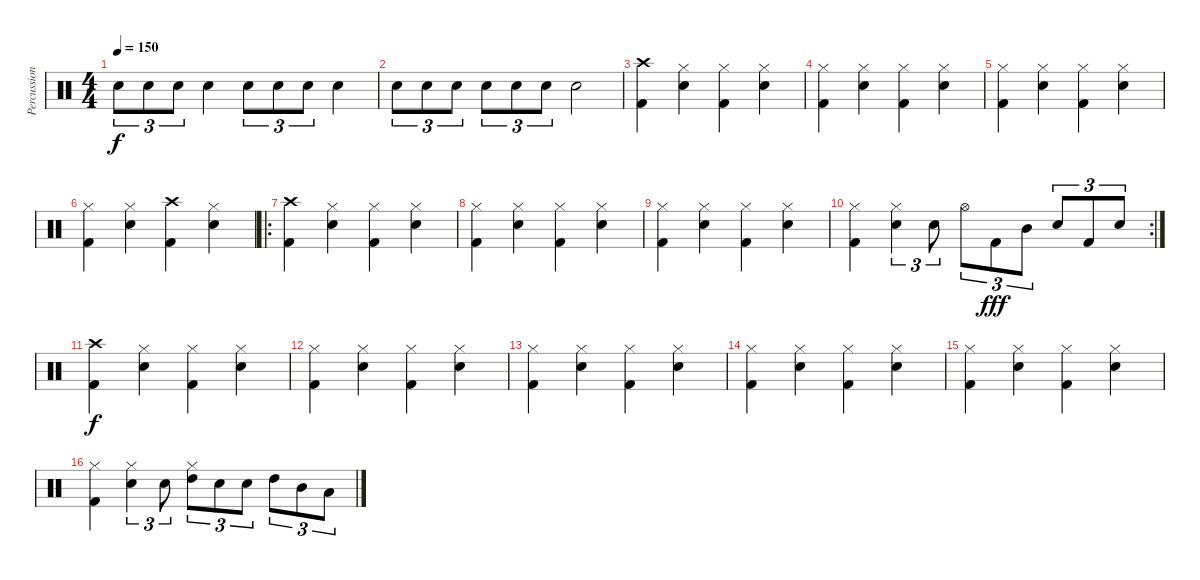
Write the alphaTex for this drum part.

\track ("Percussion" "Percussion") {instrument percussion}
\staff {score}
\articulation defaults
\ts (4 4)
\tempo 150
\clef neutral
\ks c "Electric Snare (hit)".8{tu (3 2) dy f} "Electric Snare (hit)".8{tu (3 2)} "Electric Snare (hit)".8{tu (3 2)} "Electric Snare (hit)".4 "Electric Snare (hit)".8{tu (3 2)} "Electric Snare (hit)".8{tu (3 2)} "Electric Snare (hit)".8{tu (3 2)} "Electric Snare (hit)".4
|
"Electric Snare (hit)".8{tu (3 2)} "Electric Snare (hit)".8{tu (3 2)} "Electric Snare (hit)".8{tu (3 2)} "Electric Snare (hit)".8{tu (3 2)} "Electric Snare (hit)".8{tu (3 2)} "Electric Snare (hit)".8{tu (3 2)} "Electric Snare (hit)".2 |
("Crash high (hit)" "Kick (hit) 2").4 ("Hi-Hat (closed)" "Electric Snare (hit)").4 ("Hi-Hat (closed)" "Kick (hit) 2").4 ("Hi-Hat (closed)" "Electric Snare (hit)").4 |
("Hi-Hat (closed)" "Kick (hit) 2").4 ("Hi-Hat (closed)" "Electric Snare (hit)").4 ("Hi-Hat (closed)" "Kick (hit) 2").4 ("Hi-Hat (closed)" "Electric Snare (hit)").4 |
("Hi-Hat (closed)" "Kick (hit) 2").4 ("Hi-Hat (closed)" "Electric Snare (hit)").4 ("Hi-Hat (closed)" "Kick (hit) 2").4 ("Hi-Hat (closed)" "Electric Snare (hit)").4 |
("Hi-Hat (closed)" "Kick (hit) 2").4 ("Hi-Hat (closed)" "Electric Snare (hit)").4 ("Crash high (hit)" "Kick (hit) 2").4 ("Hi-Hat (closed)" "Electric Snare (hit)").4 |
\ro
("Crash high (hit)" "Kick (hit) 2").4 ("Hi-Hat (closed)" "Electric Snare (hit)").4 ("Hi-Hat (closed)" "Kick (hit) 2").4 ("Hi-Hat (closed)" "Electric Snare (hit)").4 |
("Hi-Hat (closed)" "Kick (hit) 2").4 ("Hi-Hat (closed)" "Electric Snare (hit)").4 ("Hi-Hat (closed)" "Kick (hit) 2").4 ("Hi-Hat (closed)" "Electric Snare (hit)").4 |
("Hi-Hat (closed)" "Kick (hit) 2").4 ("Hi-Hat (closed)" "Electric Snare (hit)").4 ("Hi-Hat (closed)" "Kick (hit) 2").4 ("Hi-Hat (closed)" "Electric Snare (hit)").4 |
\rc 2
("Hi-Hat (closed)" "Kick (hit) 2").4 ("Hi-Hat (closed)" "Electric Snare (hit)").4{tu (3 2)} "Electric Snare (hit)".8{tu (3 2)} "Hi-Hat (open)".8{tu (3 2)} "Kick (hit) 2".8{tu (3 2) dy fff} "Mid Tom (hit)".8{tu (3 2)} "Electric Snare (hit)".8{tu (3 2)} "Kick (hit) 2".8{tu (3 2)} "Electric Snare (hit)".8{tu (3 2)} |
("Crash high (hit)" "Kick (hit) 2").4{dy f} ("Hi-Hat (closed)" "Electric Snare (hit)").4 ("Hi-Hat (closed)" "Kick (hit) 2").4 ("Hi-Hat (closed)" "Electric Snare (hit)").4 |
("Hi-Hat (closed)" "Kick (hit) 2").4 ("Hi-Hat (closed)" "Electric Snare (hit)").4 ("Hi-Hat (closed)" "Kick (hit) 2").4 ("Hi-Hat (closed)" "Electric Snare (hit)").4 |
("Hi-Hat (closed)" "Kick (hit) 2").4 ("Hi-Hat (closed)" "Electric Snare (hit)").4 ("Hi-Hat (closed)" "Kick (hit) 2").4 ("Hi-Hat (closed)" "Electric Snare (hit)").4 |
("Hi-Hat (closed)" "Kick (hit) 2").4 ("Hi-Hat (closed)" "Electric Snare (hit)").4 ("Hi-Hat (closed)" "Kick (hit) 2").4 ("Hi-Hat (closed)" "Electric Snare (hit)").4 |
("Hi-Hat (closed)" "Kick (hit) 2").4 ("Hi-Hat (closed)" "Electric Snare (hit)").4 ("Hi-Hat (closed)" "Kick (hit) 2").4 ("Hi-Hat (closed)" "Electric Snare (hit)").4 |
("Hi-Hat (closed)" "Kick (hit) 2").4 ("Hi-Hat (closed)" "Electric Snare (hit)").4{tu (3 2)} "Electric Snare (hit)".8{tu (3 2)} ("Hi-Hat (closed)" "High Tom (hit)").8{tu (3 2)} "Electric Snare (hit)".8{tu (3 2)} "Electric Snare (hit)".8{tu (3 2)} "High Tom (hit)".8{tu (3 2)} "Mid Tom (hit)".8{tu (3 2)} "Low Tom (hit)".8{tu (3 2)}
